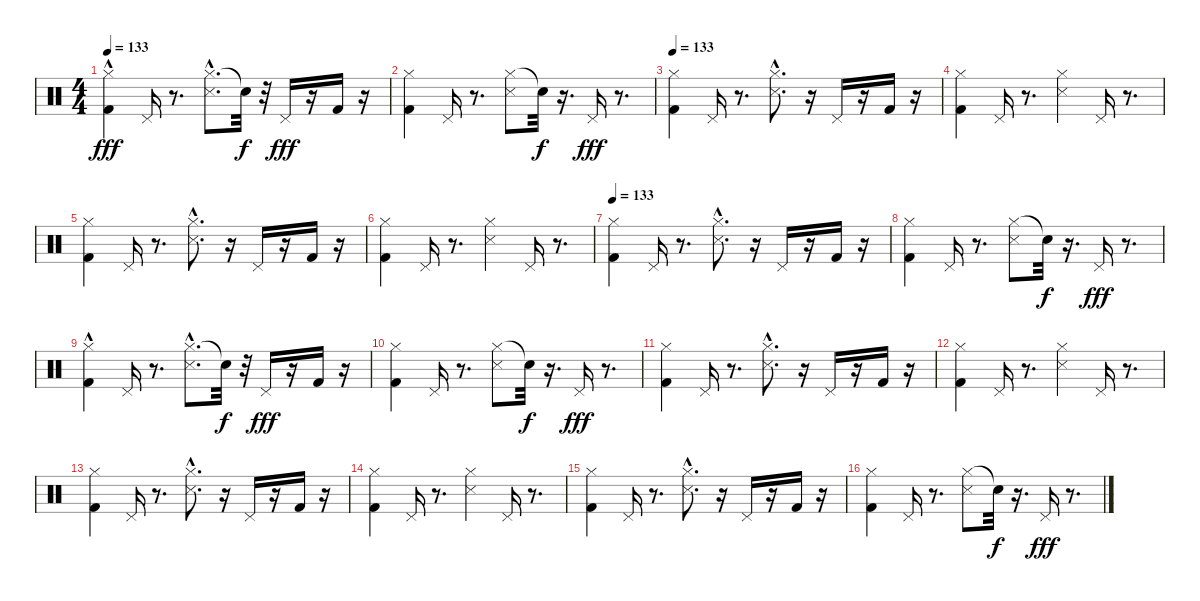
\track "" {instrument percussion}
\staff {score}
\articulation defaults
\ts (4 4)
\tempo 133
\clef neutral
\ks c
("Hi-Hat (closed)" "Kick (hit) 2"{hac}).4{dy fff} "Pedal Hi-Hat (hit)".16 r.8{d} ("Hi-Hat (closed)" "Snare (side stick) 3"{hac}).8{d} "Snare (hit)"{t}.32{dy f} r.32 "Pedal Hi-Hat (hit)".16{dy fff} r.16 "Kick (hit) 2".16 r.16 |
("Hi-Hat (closed)" "Kick (hit) 2").4 "Pedal Hi-Hat (hit)".16 r.8{d} ("Hi-Hat (closed)" "Snare (side stick) 3").8 "Snare (hit)"{t}.32{dy f} r.16{d} "Pedal Hi-Hat (hit)".16{dy fff} r.8{d} |
\tempo 133
("Kick (hit) 2" "Hi-Hat (closed)").4 "Pedal Hi-Hat (hit)".16 r.8{d} ("Hi-Hat (closed)" "Snare (side stick) 3"{hac}).8{d} r.16 "Pedal Hi-Hat (hit)".16 r.16 "Kick (hit) 2".16 r.16 |
("Hi-Hat (closed)" "Kick (hit) 2").4 "Pedal Hi-Hat (hit)".16 r.8{d} ("Hi-Hat (closed)" "Snare (side stick) 3").4 "Pedal Hi-Hat (hit)".16 r.8{d} |
("Hi-Hat (closed)" "Kick (hit) 2").4 "Pedal Hi-Hat (hit)".16 r.8{d} ("Hi-Hat (closed)" "Snare (side stick) 3"{hac}).8{d} r.16 "Pedal Hi-Hat (hit)".16 r.16 "Kick (hit) 2".16 r.16 |
("Hi-Hat (closed)" "Kick (hit) 2").4 "Pedal Hi-Hat (hit)".16 r.8{d} ("Hi-Hat (closed)" "Snare (side stick) 3").4 "Pedal Hi-Hat (hit)".16 r.8{d} |
\tempo 133
("Hi-Hat (closed)" "Kick (hit) 2").4 "Pedal Hi-Hat (hit)".16 r.8{d} ("Snare (side stick) 3"{hac} "Hi-Hat (closed)").8{d} r.16 "Pedal Hi-Hat (hit)".16 r.16 "Kick (hit) 2".16 r.16 |
("Hi-Hat (closed)" "Kick (hit) 2").4 "Pedal Hi-Hat (hit)".16 r.8{d} ("Hi-Hat (closed)" "Snare (side stick) 3").8 "Snare (hit)"{t}.32{dy f} r.16{d} "Pedal Hi-Hat (hit)".16{dy fff} r.8{d} |
("Hi-Hat (closed)" "Kick (hit) 2"{hac}).4 "Pedal Hi-Hat (hit)".16 r.8{d} ("Hi-Hat (closed)" "Snare (side stick) 3"{hac}).8{d} "Snare (hit)"{t}.32{dy f} r.32 "Pedal Hi-Hat (hit)".16{dy fff} r.16 "Kick (hit) 2".16 r.16 |
("Hi-Hat (closed)" "Kick (hit) 2").4 "Pedal Hi-Hat (hit)".16 r.8{d} ("Hi-Hat (closed)" "Snare (side stick) 3").8 "Snare (hit)"{t}.32{dy f} r.16{d} "Pedal Hi-Hat (hit)".16{dy fff} r.8{d} |
("Kick (hit) 2" "Hi-Hat (closed)").4 "Pedal Hi-Hat (hit)".16 r.8{d} ("Hi-Hat (closed)" "Snare (side stick) 3"{hac}).8{d} r.16 "Pedal Hi-Hat (hit)".16 r.16 "Kick (hit) 2".16 r.16 |
("Hi-Hat (closed)" "Kick (hit) 2").4 "Pedal Hi-Hat (hit)".16 r.8{d} ("Hi-Hat (closed)" "Snare (side stick) 3").4 "Pedal Hi-Hat (hit)".16 r.8{d} |
("Hi-Hat (closed)" "Kick (hit) 2").4 "Pedal Hi-Hat (hit)".16 r.8{d} ("Hi-Hat (closed)" "Snare (side stick) 3"{hac}).8{d} r.16 "Pedal Hi-Hat (hit)".16 r.16 "Kick (hit) 2".16 r.16 |
("Hi-Hat (closed)" "Kick (hit) 2").4 "Pedal Hi-Hat (hit)".16 r.8{d} ("Hi-Hat (closed)" "Snare (side stick) 3").4 "Pedal Hi-Hat (hit)".16 r.8{d} |
("Hi-Hat (closed)" "Kick (hit) 2").4 "Pedal Hi-Hat (hit)".16 r.8{d} ("Snare (side stick) 3"{hac} "Hi-Hat (closed)").8{d} r.16 "Pedal Hi-Hat (hit)".16 r.16 "Kick (hit) 2".16 r.16 |
("Hi-Hat (closed)" "Kick (hit) 2").4 "Pedal Hi-Hat (hit)".16 r.8{d} ("Hi-Hat (closed)" "Snare (side stick) 3").8 "Snare (hit)"{t}.32{dy f} r.16{d} "Pedal Hi-Hat (hit)".16{dy fff} r.8{d}
